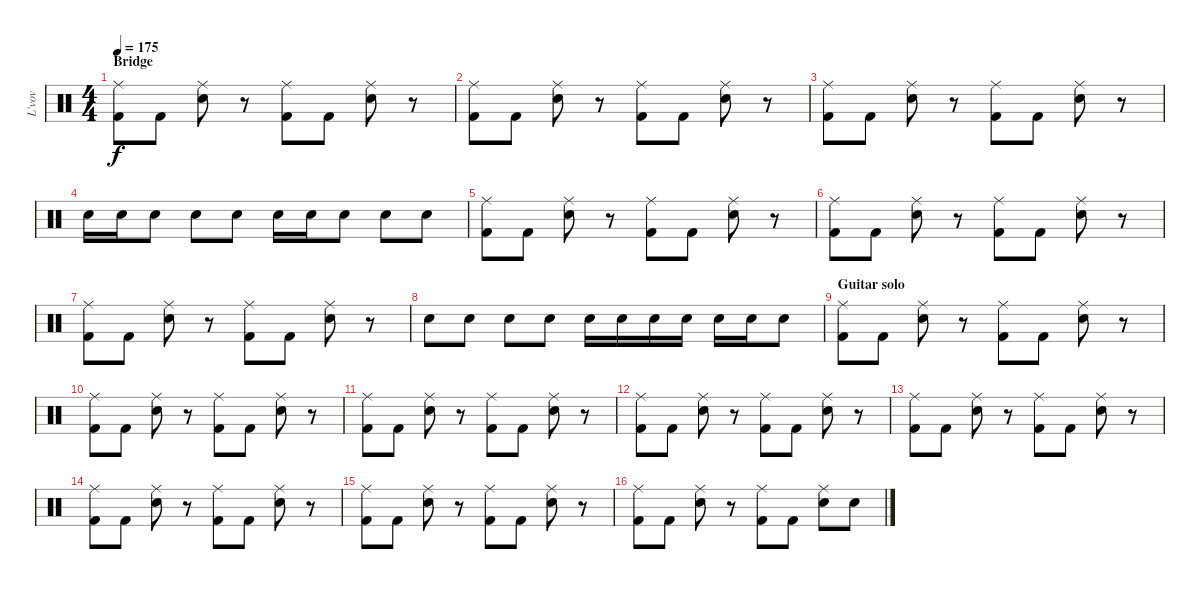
\track ("L'vov" "L'vov") {instrument percussion}
\staff {score}
\articulation defaults
\ts (4 4)
\section ("" "Bridge")
\tempo 175
\clef neutral
\ks c
("Kick (hit) 2" "Ride (middle)").8{dy f} "Kick (hit) 2".8 ("Snare (hit) 2" "Ride (middle)").8 r.8 ("Kick (hit) 2" "Ride (middle)").8 "Kick (hit) 2".8 ("Snare (hit) 2" "Ride (middle)").8 r.8 |
("Kick (hit) 2" "Ride (middle)").8 "Kick (hit) 2".8 ("Snare (hit) 2" "Ride (middle)").8 r.8 ("Kick (hit) 2" "Ride (middle)").8 "Kick (hit) 2".8 ("Snare (hit) 2" "Ride (middle)").8 r.8 |
("Kick (hit) 2" "Ride (middle)").8 "Kick (hit) 2".8 ("Snare (hit) 2" "Ride (middle)").8 r.8 ("Kick (hit) 2" "Ride (middle)").8 "Kick (hit) 2".8 ("Snare (hit) 2" "Ride (middle)").8 r.8 |
"Snare (hit) 2".16 "Snare (hit) 2".16 "Snare (hit) 2".8 "Snare (hit) 2".8 "Snare (hit) 2".8 "Snare (hit) 2".16 "Snare (hit) 2".16 "Snare (hit) 2".8 "Snare (hit) 2".8 "Snare (hit) 2".8 |
("Kick (hit) 2" "Ride (middle)").8 "Kick (hit) 2".8 ("Snare (hit) 2" "Ride (middle)").8 r.8 ("Kick (hit) 2" "Ride (middle)").8 "Kick (hit) 2".8 ("Snare (hit) 2" "Ride (middle)").8 r.8 |
("Kick (hit) 2" "Ride (middle)").8 "Kick (hit) 2".8 ("Snare (hit) 2" "Ride (middle)").8 r.8 ("Kick (hit) 2" "Ride (middle)").8 "Kick (hit) 2".8 ("Snare (hit) 2" "Ride (middle)").8 r.8 |
("Kick (hit) 2" "Ride (middle)").8 "Kick (hit) 2".8 ("Snare (hit) 2" "Ride (middle)").8 r.8 ("Kick (hit) 2" "Ride (middle)").8 "Kick (hit) 2".8 ("Snare (hit) 2" "Ride (middle)").8 r.8 |
"Snare (hit) 2".8 "Snare (hit) 2".8 "Snare (hit) 2".8 "Snare (hit) 2".8 "Snare (hit) 2".16 "Snare (hit) 2".16 "Snare (hit) 2".16 "Snare (hit) 2".16 "Snare (hit) 2".16 "Snare (hit) 2".16 "Snare (hit) 2".8 |
\section ("" "Guitar solo ")
("Kick (hit) 2" "Ride (middle)").8 "Kick (hit) 2".8 ("Snare (hit) 2" "Ride (middle)").8 r.8 ("Kick (hit) 2" "Ride (middle)").8 "Kick (hit) 2".8 ("Snare (hit) 2" "Ride (middle)").8 r.8 |
("Kick (hit) 2" "Ride (middle)").8 "Kick (hit) 2".8 ("Snare (hit) 2" "Ride (middle)").8 r.8 ("Kick (hit) 2" "Ride (middle)").8 "Kick (hit) 2".8 ("Snare (hit) 2" "Ride (middle)").8 r.8 |
("Kick (hit) 2" "Ride (middle)").8 "Kick (hit) 2".8 ("Snare (hit) 2" "Ride (middle)").8 r.8 ("Kick (hit) 2" "Ride (middle)").8 "Kick (hit) 2".8 ("Snare (hit) 2" "Ride (middle)").8 r.8 |
("Kick (hit) 2" "Ride (middle)").8 "Kick (hit) 2".8 ("Snare (hit) 2" "Ride (middle)").8 r.8 ("Kick (hit) 2" "Ride (middle)").8 "Kick (hit) 2".8 ("Snare (hit) 2" "Ride (middle)").8 r.8 |
("Kick (hit) 2" "Ride (middle)").8 "Kick (hit) 2".8 ("Snare (hit) 2" "Ride (middle)").8 r.8 ("Kick (hit) 2" "Ride (middle)").8 "Kick (hit) 2".8 ("Snare (hit) 2" "Ride (middle)").8 r.8 |
("Kick (hit) 2" "Ride (middle)").8 "Kick (hit) 2".8 ("Snare (hit) 2" "Ride (middle)").8 r.8 ("Kick (hit) 2" "Ride (middle)").8 "Kick (hit) 2".8 ("Snare (hit) 2" "Ride (middle)").8 r.8 |
("Kick (hit) 2" "Ride (middle)").8 "Kick (hit) 2".8 ("Snare (hit) 2" "Ride (middle)").8 r.8 ("Kick (hit) 2" "Ride (middle)").8 "Kick (hit) 2".8 ("Snare (hit) 2" "Ride (middle)").8 r.8 |
("Kick (hit) 2" "Ride (middle)").8 "Kick (hit) 2".8 ("Snare (hit) 2" "Ride (middle)").8 r.8 ("Kick (hit) 2" "Ride (middle)").8 "Kick (hit) 2".8 ("Snare (hit) 2" "Ride (middle)").8 "Snare (hit) 2".8
